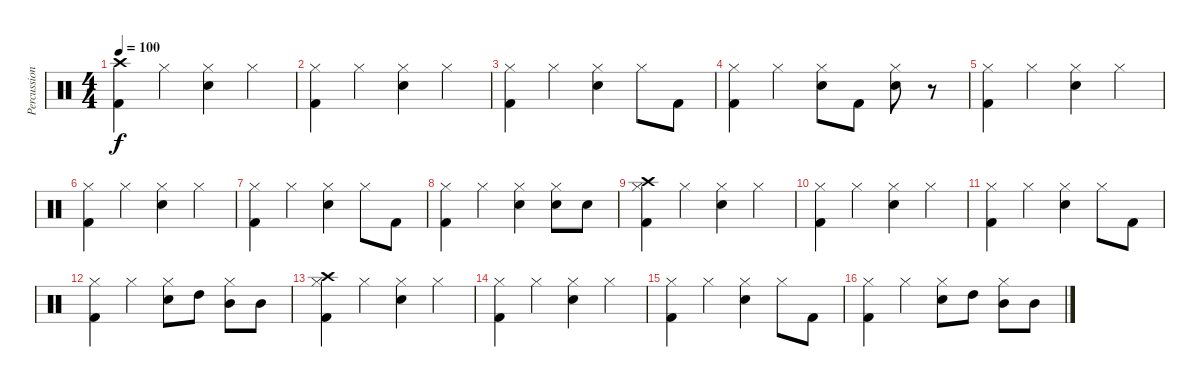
\track ("Percussion" "Percussion") {instrument percussion}
\staff {score}
\articulation defaults
\ts (4 4)
\tempo 100
\clef neutral
\ks c
("Kick (hit) 2" "Crash high (hit)").4{dy f} "Hi-Hat (closed)".4 ("Snare (hit) 2" "Hi-Hat (closed)").4 "Hi-Hat (closed)".4 |
("Kick (hit) 2" "Hi-Hat (closed)").4 "Hi-Hat (closed)".4 ("Snare (hit) 2" "Hi-Hat (closed)").4 "Hi-Hat (closed)".4 |
("Kick (hit) 2" "Hi-Hat (closed)").4 "Hi-Hat (closed)".4 ("Snare (hit) 2" "Hi-Hat (closed)").4 "Hi-Hat (closed)".8 "Kick (hit) 2".8 |
("Kick (hit) 2" "Hi-Hat (closed)").4 "Hi-Hat (closed)".4 ("Snare (hit) 2" "Hi-Hat (closed)").8 "Kick (hit) 2".8 ("Snare (hit) 2" "Hi-Hat (closed)").8 r.8 |
("Kick (hit) 2" "Hi-Hat (closed)").4 "Hi-Hat (closed)".4 ("Snare (hit) 2" "Hi-Hat (closed)").4 "Hi-Hat (closed)".4 |
("Kick (hit) 2" "Hi-Hat (closed)").4 "Hi-Hat (closed)".4 ("Snare (hit) 2" "Hi-Hat (closed)").4 "Hi-Hat (closed)".4 |
("Kick (hit) 2" "Hi-Hat (closed)").4 "Hi-Hat (closed)".4 ("Snare (hit) 2" "Hi-Hat (closed)").4 "Hi-Hat (closed)".8 "Kick (hit) 2".8 |
("Kick (hit) 2" "Hi-Hat (closed)").4 "Hi-Hat (closed)".4 ("Snare (hit) 2" "Hi-Hat (closed)").4 ("Snare (hit) 2" "Hi-Hat (closed)").8 "Snare (hit) 2".8 |
("Kick (hit) 2" "Hi-Hat (closed)" "Crash high (hit)").4 "Hi-Hat (closed)".4 ("Snare (hit) 2" "Hi-Hat (closed)").4 "Hi-Hat (closed)".4 |
("Kick (hit) 2" "Hi-Hat (closed)").4 "Hi-Hat (closed)".4 ("Snare (hit) 2" "Hi-Hat (closed)").4 "Hi-Hat (closed)".4 |
("Kick (hit) 2" "Hi-Hat (closed)").4 "Hi-Hat (closed)".4 ("Snare (hit) 2" "Hi-Hat (closed)").4 "Hi-Hat (closed)".8 "Kick (hit) 2".8 |
("Kick (hit) 2" "Hi-Hat (closed)").4 "Hi-Hat (closed)".4 ("Hi-Hat (closed)" "Snare (hit) 2").8 "High Tom (hit)".8 ("Hi-Hat (closed)" "Mid Tom (hit)").8 "Mid Tom (hit)".8 |
("Kick (hit) 2" "Hi-Hat (closed)" "Crash high (hit)").4 "Hi-Hat (closed)".4 ("Snare (hit) 2" "Hi-Hat (closed)").4 "Hi-Hat (closed)".4 |
("Kick (hit) 2" "Hi-Hat (closed)").4 "Hi-Hat (closed)".4 ("Snare (hit) 2" "Hi-Hat (closed)").4 "Hi-Hat (closed)".4 |
("Kick (hit) 2" "Hi-Hat (closed)").4 "Hi-Hat (closed)".4 ("Snare (hit) 2" "Hi-Hat (closed)").4 "Hi-Hat (closed)".8 "Kick (hit) 2".8 |
("Kick (hit) 2" "Hi-Hat (closed)").4 "Hi-Hat (closed)".4 ("Hi-Hat (closed)" "Snare (hit) 2").8 "High Tom (hit)".8 ("Hi-Hat (closed)" "Mid Tom (hit)").8 "Mid Tom (hit)".8
